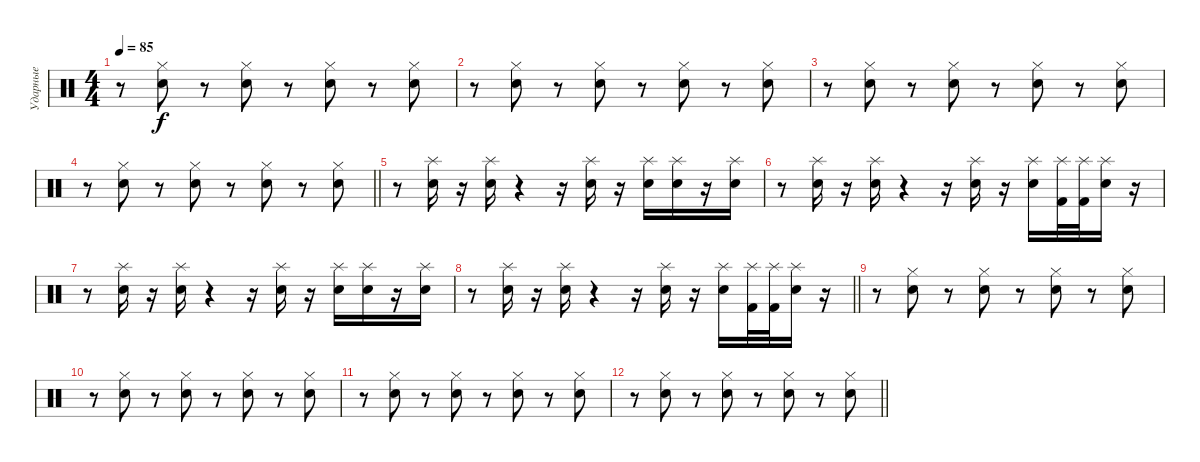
\track ("Ударные" "Ударные") {instrument percussion}
\staff {score}
\articulation defaults
\ts (4 4)
\tempo 85
\clef neutral
\ks c
r.8{dy f} ("Hi-Hat (closed)" "Snare (hit) 2").8 r.8 ("Hi-Hat (closed)" "Snare (hit) 2").8 r.8 ("Hi-Hat (closed)" "Snare (hit) 2").8 r.8 ("Hi-Hat (closed)" "Snare (hit) 2").8 |
r.8 ("Hi-Hat (closed)" "Snare (hit) 2").8 r.8 ("Hi-Hat (closed)" "Snare (hit) 2").8 r.8 ("Hi-Hat (closed)" "Snare (hit) 2").8 r.8 ("Hi-Hat (closed)" "Snare (hit) 2").8 |
r.8 ("Hi-Hat (closed)" "Snare (hit) 2").8 r.8 ("Hi-Hat (closed)" "Snare (hit) 2").8 r.8 ("Hi-Hat (closed)" "Snare (hit) 2").8 r.8 ("Hi-Hat (closed)" "Snare (hit) 2").8 |
\barLineRight lightlight
r.8 ("Hi-Hat (closed)" "Snare (hit) 2").8 r.8 ("Hi-Hat (closed)" "Snare (hit) 2").8 r.8 ("Hi-Hat (closed)" "Snare (hit) 2").8 r.8 ("Hi-Hat (closed)" "Snare (hit) 2").8 |
r.8 ("Splash (hit)" "Snare (hit) 2").16 r.16 ("Splash (hit)" "Snare (hit) 2").16 r.4 r.16 ("Splash (hit)" "Snare (hit) 2").16 r.16 ("Splash (hit)" "Snare (hit) 2").16 ("Splash (hit)" "Snare (hit) 2").16 r.16 ("Splash (hit)" "Snare (hit) 2").16 |
r.8 ("Splash (hit)" "Snare (hit) 2").16 r.16 ("Splash (hit)" "Snare (hit) 2").16 r.4 r.16 ("Splash (hit)" "Snare (hit) 2").16 r.16 ("Splash (hit)" "Snare (hit) 2").16 ("Splash (hit)" "Kick (hit) 2").32 ("Splash (hit)" "Kick (hit) 2").32 ("Splash (hit)" "Snare (hit) 2").16 r.16 |
r.8 ("Splash (hit)" "Snare (hit) 2").16 r.16 ("Splash (hit)" "Snare (hit) 2").16 r.4 r.16 ("Splash (hit)" "Snare (hit) 2").16 r.16 ("Splash (hit)" "Snare (hit) 2").16 ("Splash (hit)" "Snare (hit) 2").16 r.16 ("Splash (hit)" "Snare (hit) 2").16 |
\barLineRight lightlight
r.8 ("Splash (hit)" "Snare (hit) 2").16 r.16 ("Splash (hit)" "Snare (hit) 2").16 r.4 r.16 ("Splash (hit)" "Snare (hit) 2").16 r.16 ("Splash (hit)" "Snare (hit) 2").16 ("Splash (hit)" "Kick (hit) 2").32 ("Splash (hit)" "Kick (hit) 2").32 ("Splash (hit)" "Snare (hit) 2").16 r.16 |
r.8 ("Hi-Hat (closed)" "Snare (hit) 2").8 r.8 ("Hi-Hat (closed)" "Snare (hit) 2").8 r.8 ("Hi-Hat (closed)" "Snare (hit) 2").8 r.8 ("Hi-Hat (closed)" "Snare (hit) 2").8 |
r.8 ("Hi-Hat (closed)" "Snare (hit) 2").8 r.8 ("Hi-Hat (closed)" "Snare (hit) 2").8 r.8 ("Hi-Hat (closed)" "Snare (hit) 2").8 r.8 ("Hi-Hat (closed)" "Snare (hit) 2").8 |
r.8 ("Hi-Hat (closed)" "Snare (hit) 2").8 r.8 ("Hi-Hat (closed)" "Snare (hit) 2").8 r.8 ("Hi-Hat (closed)" "Snare (hit) 2").8 r.8 ("Hi-Hat (closed)" "Snare (hit) 2").8 |
\barLineRight lightlight
r.8 ("Hi-Hat (closed)" "Snare (hit) 2").8 r.8 ("Hi-Hat (closed)" "Snare (hit) 2").8 r.8 ("Hi-Hat (closed)" "Snare (hit) 2").8 r.8 ("Hi-Hat (closed)" "Snare (hit) 2").8
